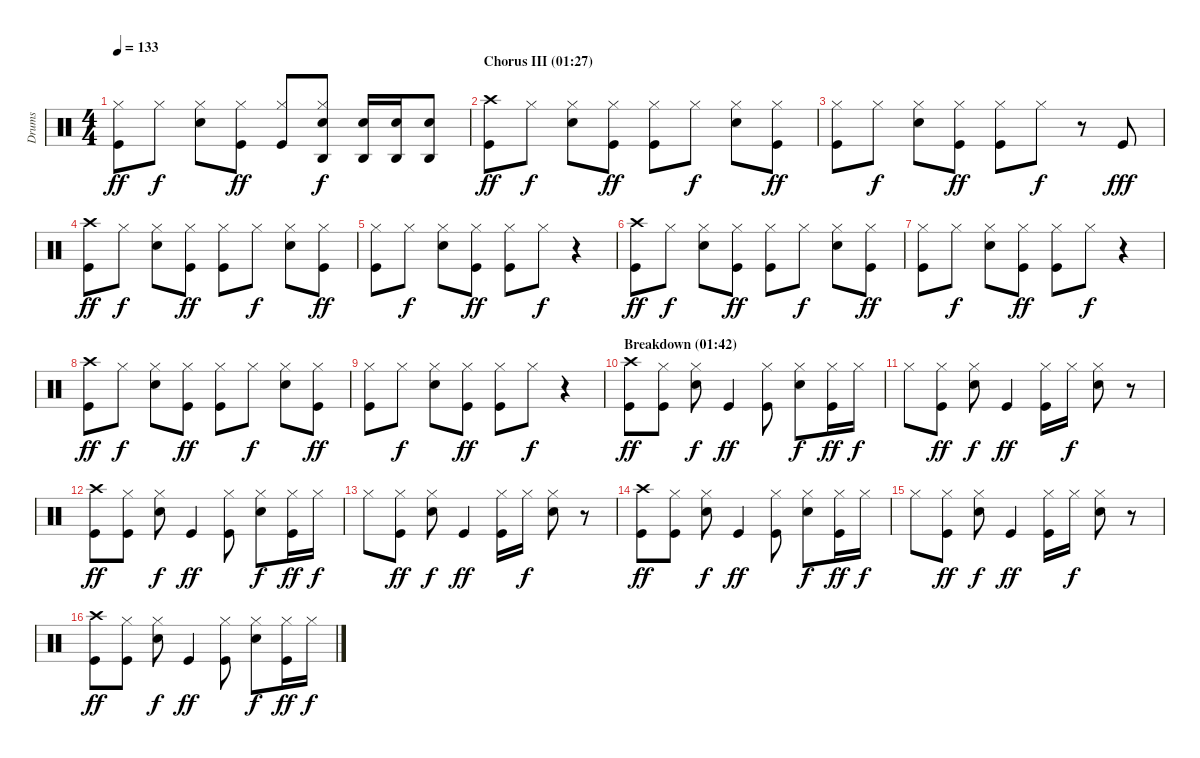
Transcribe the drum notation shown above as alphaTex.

\track ("Drums" "Drums") {instrument percussion}
\staff {score}
\articulation defaults
\ts (4 4)
\tempo 133
\clef neutral
\ks c
("Hi-Hat (closed)" "Kick (hit)").8{dy ff} "Hi-Hat (closed)".8{dy f} ("Hi-Hat (closed)" "Electric Snare (hit)").8 ("Hi-Hat (closed)" "Kick (hit)").8{dy ff} ("Hi-Hat (closed)" "Kick (hit)").8 ("Agogo high (hit)" "Hi-Hat (closed)" "Electric Snare (hit)").8{dy f} ("Agogo high (hit)" "Electric Snare (hit)").16 ("Agogo high (hit)" "Electric Snare (hit)").16 ("Agogo high (hit)" "Electric Snare (hit)").8 |
\section ("" "Chorus III (01:27)")
("Crash high (hit)" "Kick (hit)").8{dy ff} "Hi-Hat (closed)".8{dy f} ("Hi-Hat (closed)" "Electric Snare (hit)").8 ("Hi-Hat (closed)" "Kick (hit)").8{dy ff} ("Hi-Hat (closed)" "Kick (hit)").8 "Hi-Hat (closed)".8{dy f} ("Hi-Hat (closed)" "Electric Snare (hit)").8 ("Hi-Hat (closed)" "Kick (hit)").8{dy ff} |
("Hi-Hat (closed)" "Kick (hit)").8 "Hi-Hat (closed)".8{dy f} ("Hi-Hat (closed)" "Electric Snare (hit)").8 ("Hi-Hat (closed)" "Kick (hit)").8{dy ff} ("Hi-Hat (closed)" "Kick (hit)").8 "Hi-Hat (closed)".8{dy f} r.8 "Kick (hit)".8{dy fff} |
("Crash high (hit)" "Kick (hit)").8{dy ff} "Hi-Hat (closed)".8{dy f} ("Hi-Hat (closed)" "Electric Snare (hit)").8 ("Hi-Hat (closed)" "Kick (hit)").8{dy ff} ("Hi-Hat (closed)" "Kick (hit)").8 "Hi-Hat (closed)".8{dy f} ("Hi-Hat (closed)" "Electric Snare (hit)").8 ("Hi-Hat (closed)" "Kick (hit)").8{dy ff} |
("Hi-Hat (closed)" "Kick (hit)").8 "Hi-Hat (closed)".8{dy f} ("Hi-Hat (closed)" "Electric Snare (hit)").8 ("Hi-Hat (closed)" "Kick (hit)").8{dy ff} ("Hi-Hat (closed)" "Kick (hit)").8 "Hi-Hat (closed)".8{dy f} r.4 |
("Crash high (hit)" "Kick (hit)").8{dy ff} "Hi-Hat (closed)".8{dy f} ("Hi-Hat (closed)" "Electric Snare (hit)").8 ("Hi-Hat (closed)" "Kick (hit)").8{dy ff} ("Hi-Hat (closed)" "Kick (hit)").8 "Hi-Hat (closed)".8{dy f} ("Hi-Hat (closed)" "Electric Snare (hit)").8 ("Hi-Hat (closed)" "Kick (hit)").8{dy ff} |
("Hi-Hat (closed)" "Kick (hit)").8 "Hi-Hat (closed)".8{dy f} ("Hi-Hat (closed)" "Electric Snare (hit)").8 ("Hi-Hat (closed)" "Kick (hit)").8{dy ff} ("Hi-Hat (closed)" "Kick (hit)").8 "Hi-Hat (closed)".8{dy f} r.4 |
("Crash high (hit)" "Kick (hit)").8{dy ff} "Hi-Hat (closed)".8{dy f} ("Hi-Hat (closed)" "Electric Snare (hit)").8 ("Hi-Hat (closed)" "Kick (hit)").8{dy ff} ("Hi-Hat (closed)" "Kick (hit)").8 "Hi-Hat (closed)".8{dy f} ("Hi-Hat (closed)" "Electric Snare (hit)").8 ("Hi-Hat (closed)" "Kick (hit)").8{dy ff} |
("Hi-Hat (closed)" "Kick (hit)").8 "Hi-Hat (closed)".8{dy f} ("Hi-Hat (closed)" "Electric Snare (hit)").8 ("Hi-Hat (closed)" "Kick (hit)").8{dy ff} ("Hi-Hat (closed)" "Kick (hit)").8 "Hi-Hat (closed)".8{dy f} r.4 |
\section ("" "Breakdown (01:42)")
("Crash high (hit)" "Kick (hit)").8{dy ff} ("Hi-Hat (closed)" "Kick (hit)").8 ("Hi-Hat (closed)" "Electric Snare (hit)").8{dy f} "Kick (hit)".4{dy ff} ("Hi-Hat (closed)" "Kick (hit)").8 ("Hi-Hat (closed)" "Electric Snare (hit)").8{dy f} ("Hi-Hat (closed)" "Kick (hit)").16{dy ff} "Hi-Hat (closed)".16{dy f} |
"Hi-Hat (closed)".8 ("Hi-Hat (closed)" "Kick (hit)").8{dy ff} ("Hi-Hat (closed)" "Electric Snare (hit)").8{dy f} "Kick (hit)".4{dy ff} ("Hi-Hat (closed)" "Kick (hit)").16 "Hi-Hat (closed)".16{dy f} ("Hi-Hat (closed)" "Electric Snare (hit)").8 r.8 |
("Crash high (hit)" "Kick (hit)").8{dy ff} ("Hi-Hat (closed)" "Kick (hit)").8 ("Hi-Hat (closed)" "Electric Snare (hit)").8{dy f} "Kick (hit)".4{dy ff} ("Hi-Hat (closed)" "Kick (hit)").8 ("Hi-Hat (closed)" "Electric Snare (hit)").8{dy f} ("Hi-Hat (closed)" "Kick (hit)").16{dy ff} "Hi-Hat (closed)".16{dy f} |
"Hi-Hat (closed)".8 ("Hi-Hat (closed)" "Kick (hit)").8{dy ff} ("Hi-Hat (closed)" "Electric Snare (hit)").8{dy f} "Kick (hit)".4{dy ff} ("Hi-Hat (closed)" "Kick (hit)").16 "Hi-Hat (closed)".16{dy f} ("Hi-Hat (closed)" "Electric Snare (hit)").8 r.8 |
("Crash high (hit)" "Kick (hit)").8{dy ff} ("Hi-Hat (closed)" "Kick (hit)").8 ("Hi-Hat (closed)" "Electric Snare (hit)").8{dy f} "Kick (hit)".4{dy ff} ("Hi-Hat (closed)" "Kick (hit)").8 ("Hi-Hat (closed)" "Electric Snare (hit)").8{dy f} ("Hi-Hat (closed)" "Kick (hit)").16{dy ff} "Hi-Hat (closed)".16{dy f} |
"Hi-Hat (closed)".8 ("Hi-Hat (closed)" "Kick (hit)").8{dy ff} ("Hi-Hat (closed)" "Electric Snare (hit)").8{dy f} "Kick (hit)".4{dy ff} ("Hi-Hat (closed)" "Kick (hit)").16 "Hi-Hat (closed)".16{dy f} ("Hi-Hat (closed)" "Electric Snare (hit)").8 r.8 |
("Crash high (hit)" "Kick (hit)").8{dy ff} ("Hi-Hat (closed)" "Kick (hit)").8 ("Hi-Hat (closed)" "Electric Snare (hit)").8{dy f} "Kick (hit)".4{dy ff} ("Hi-Hat (closed)" "Kick (hit)").8 ("Hi-Hat (closed)" "Electric Snare (hit)").8{dy f} ("Hi-Hat (closed)" "Kick (hit)").16{dy ff} "Hi-Hat (closed)".16{dy f}
